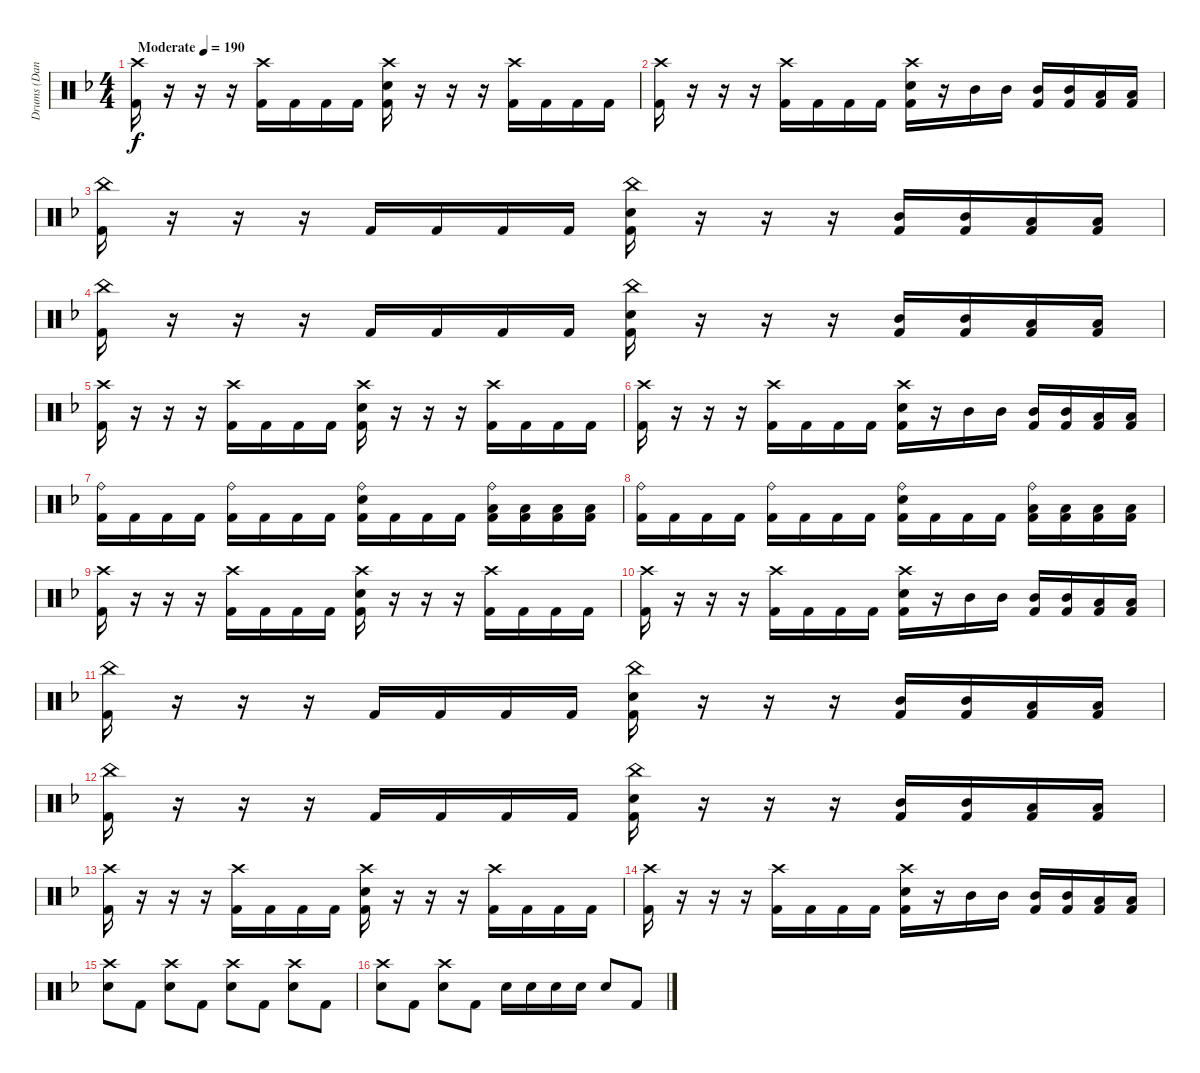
\track ("Drums (Daniel)" "Drums (Dan") {instrument percussion}
\staff {score}
\articulation defaults
\ts (4 4)
\tempo (190 "Moderate")
\clef neutral
\ks dminor
("Crash high (hit)" "Kick (hit) 2").16{dy f} r.16 r.16 r.16 ("Crash high (hit)" "Kick (hit) 2").16 "Kick (hit) 2".16 "Kick (hit) 2".16 "Kick (hit) 2".16 ("Crash high (hit)" "Electric Snare (hit)" "Kick (hit) 2").16 r.16 r.16 r.16 ("Crash high (hit)" "Kick (hit) 2").16 "Kick (hit) 2".16 "Kick (hit) 2".16 "Kick (hit) 2".16 |
("Crash high (hit)" "Kick (hit) 2").16 r.16 r.16 r.16 ("Crash high (hit)" "Kick (hit) 2").16 "Kick (hit) 2".16 "Kick (hit) 2".16 "Kick (hit) 2".16 ("Crash high (hit)" "Electric Snare (hit)" "Kick (hit) 2").16 r.16 "Mid Tom (hit)".16 "Mid Tom (hit)".16 ("Mid Tom (hit)" "Kick (hit) 2").16 ("Mid Tom (hit)" "Kick (hit) 2").16 ("Low Tom (hit)" "Kick (hit) 2").16 ("Low Tom (hit)" "Kick (hit) 2").16 |
("China (hit)" "Kick (hit) 2").16 r.16 r.16 r.16 "Kick (hit) 2".16 "Kick (hit) 2".16 "Kick (hit) 2".16 "Kick (hit) 2".16 ("China (hit)" "Electric Snare (hit)" "Kick (hit) 2").16 r.16 r.16 r.16 ("Mid Tom (hit)" "Kick (hit) 2").16 ("Mid Tom (hit)" "Kick (hit) 2").16 ("Low Tom (hit)" "Kick (hit) 2").16 ("Low Tom (hit)" "Kick (hit) 2").16 |
("China (hit)" "Kick (hit) 2").16 r.16 r.16 r.16 "Kick (hit) 2".16 "Kick (hit) 2".16 "Kick (hit) 2".16 "Kick (hit) 2".16 ("China (hit)" "Electric Snare (hit)" "Kick (hit) 2").16 r.16 r.16 r.16 ("Mid Tom (hit)" "Kick (hit) 2").16 ("Mid Tom (hit)" "Kick (hit) 2").16 ("Low Tom (hit)" "Kick (hit) 2").16 ("Low Tom (hit)" "Kick (hit) 2").16 |
("Crash high (hit)" "Kick (hit) 2").16 r.16 r.16 r.16 ("Crash high (hit)" "Kick (hit) 2").16 "Kick (hit) 2".16 "Kick (hit) 2".16 "Kick (hit) 2".16 ("Crash high (hit)" "Electric Snare (hit)" "Kick (hit) 2").16 r.16 r.16 r.16 ("Crash high (hit)" "Kick (hit) 2").16 "Kick (hit) 2".16 "Kick (hit) 2".16 "Kick (hit) 2".16 |
("Crash high (hit)" "Kick (hit) 2").16 r.16 r.16 r.16 ("Crash high (hit)" "Kick (hit) 2").16 "Kick (hit) 2".16 "Kick (hit) 2".16 "Kick (hit) 2".16 ("Crash high (hit)" "Electric Snare (hit)" "Kick (hit) 2").16 r.16 "Mid Tom (hit)".16 "Mid Tom (hit)".16 ("Mid Tom (hit)" "Kick (hit) 2").16 ("Mid Tom (hit)" "Kick (hit) 2").16 ("Low Tom (hit)" "Kick (hit) 2").16 ("Low Tom (hit)" "Kick (hit) 2").16 |
("Ride (bell)" "Kick (hit) 2").16 "Kick (hit) 2".16 "Kick (hit) 2".16 "Kick (hit) 2".16 ("Ride (bell)" "Kick (hit) 2").16 "Kick (hit) 2".16 "Kick (hit) 2".16 "Kick (hit) 2".16 ("Ride (bell)" "Electric Snare (hit)" "Kick (hit) 2").16 "Kick (hit) 2".16 "Kick (hit) 2".16 "Kick (hit) 2".16 ("Ride (bell)" "Low Tom (hit)" "Kick (hit) 2").16 ("Low Tom (hit)" "Kick (hit) 2").16 ("Low Tom (hit)" "Kick (hit) 2").16 ("Low Tom (hit)" "Kick (hit) 2").16 |
("Ride (bell)" "Kick (hit) 2").16 "Kick (hit) 2".16 "Kick (hit) 2".16 "Kick (hit) 2".16 ("Ride (bell)" "Kick (hit) 2").16 "Kick (hit) 2".16 "Kick (hit) 2".16 "Kick (hit) 2".16 ("Ride (bell)" "Electric Snare (hit)" "Kick (hit) 2").16 "Kick (hit) 2".16 "Kick (hit) 2".16 "Kick (hit) 2".16 ("Ride (bell)" "Low Tom (hit)" "Kick (hit) 2").16 ("Low Tom (hit)" "Kick (hit) 2").16 ("Low Tom (hit)" "Kick (hit) 2").16 ("Low Tom (hit)" "Kick (hit) 2").16 |
("Crash high (hit)" "Kick (hit) 2").16 r.16 r.16 r.16 ("Crash high (hit)" "Kick (hit) 2").16 "Kick (hit) 2".16 "Kick (hit) 2".16 "Kick (hit) 2".16 ("Crash high (hit)" "Electric Snare (hit)" "Kick (hit) 2").16 r.16 r.16 r.16 ("Crash high (hit)" "Kick (hit) 2").16 "Kick (hit) 2".16 "Kick (hit) 2".16 "Kick (hit) 2".16 |
("Crash high (hit)" "Kick (hit) 2").16 r.16 r.16 r.16 ("Crash high (hit)" "Kick (hit) 2").16 "Kick (hit) 2".16 "Kick (hit) 2".16 "Kick (hit) 2".16 ("Crash high (hit)" "Electric Snare (hit)" "Kick (hit) 2").16 r.16 "Mid Tom (hit)".16 "Mid Tom (hit)".16 ("Mid Tom (hit)" "Kick (hit) 2").16 ("Mid Tom (hit)" "Kick (hit) 2").16 ("Low Tom (hit)" "Kick (hit) 2").16 ("Low Tom (hit)" "Kick (hit) 2").16 |
("China (hit)" "Kick (hit) 2").16 r.16 r.16 r.16 "Kick (hit) 2".16 "Kick (hit) 2".16 "Kick (hit) 2".16 "Kick (hit) 2".16 ("China (hit)" "Electric Snare (hit)" "Kick (hit) 2").16 r.16 r.16 r.16 ("Mid Tom (hit)" "Kick (hit) 2").16 ("Mid Tom (hit)" "Kick (hit) 2").16 ("Low Tom (hit)" "Kick (hit) 2").16 ("Low Tom (hit)" "Kick (hit) 2").16 |
("China (hit)" "Kick (hit) 2").16 r.16 r.16 r.16 "Kick (hit) 2".16 "Kick (hit) 2".16 "Kick (hit) 2".16 "Kick (hit) 2".16 ("China (hit)" "Electric Snare (hit)" "Kick (hit) 2").16 r.16 r.16 r.16 ("Mid Tom (hit)" "Kick (hit) 2").16 ("Mid Tom (hit)" "Kick (hit) 2").16 ("Low Tom (hit)" "Kick (hit) 2").16 ("Low Tom (hit)" "Kick (hit) 2").16 |
("Crash high (hit)" "Kick (hit) 2").16 r.16 r.16 r.16 ("Crash high (hit)" "Kick (hit) 2").16 "Kick (hit) 2".16 "Kick (hit) 2".16 "Kick (hit) 2".16 ("Crash high (hit)" "Electric Snare (hit)" "Kick (hit) 2").16 r.16 r.16 r.16 ("Crash high (hit)" "Kick (hit) 2").16 "Kick (hit) 2".16 "Kick (hit) 2".16 "Kick (hit) 2".16 |
("Crash high (hit)" "Kick (hit) 2").16 r.16 r.16 r.16 ("Crash high (hit)" "Kick (hit) 2").16 "Kick (hit) 2".16 "Kick (hit) 2".16 "Kick (hit) 2".16 ("Crash high (hit)" "Electric Snare (hit)" "Kick (hit) 2").16 r.16 "Mid Tom (hit)".16 "Mid Tom (hit)".16 ("Mid Tom (hit)" "Kick (hit) 2").16 ("Mid Tom (hit)" "Kick (hit) 2").16 ("Low Tom (hit)" "Kick (hit) 2").16 ("Low Tom (hit)" "Kick (hit) 2").16 |
("Crash high (hit)" "Electric Snare (hit)").8 "Kick (hit) 2".8 ("Crash high (hit)" "Electric Snare (hit)").8 "Kick (hit) 2".8 ("Crash high (hit)" "Electric Snare (hit)").8 "Kick (hit) 2".8 ("Crash high (hit)" "Electric Snare (hit)").8 "Kick (hit) 2".8 |
("Crash high (hit)" "Electric Snare (hit)").8 "Kick (hit) 2".8 ("Crash high (hit)" "Electric Snare (hit)").8 "Kick (hit) 2".8 "Electric Snare (hit)".16 "Electric Snare (hit)".16 "Electric Snare (hit)".16 "Electric Snare (hit)".16 "Electric Snare (hit)".8 "Kick (hit) 2".8
